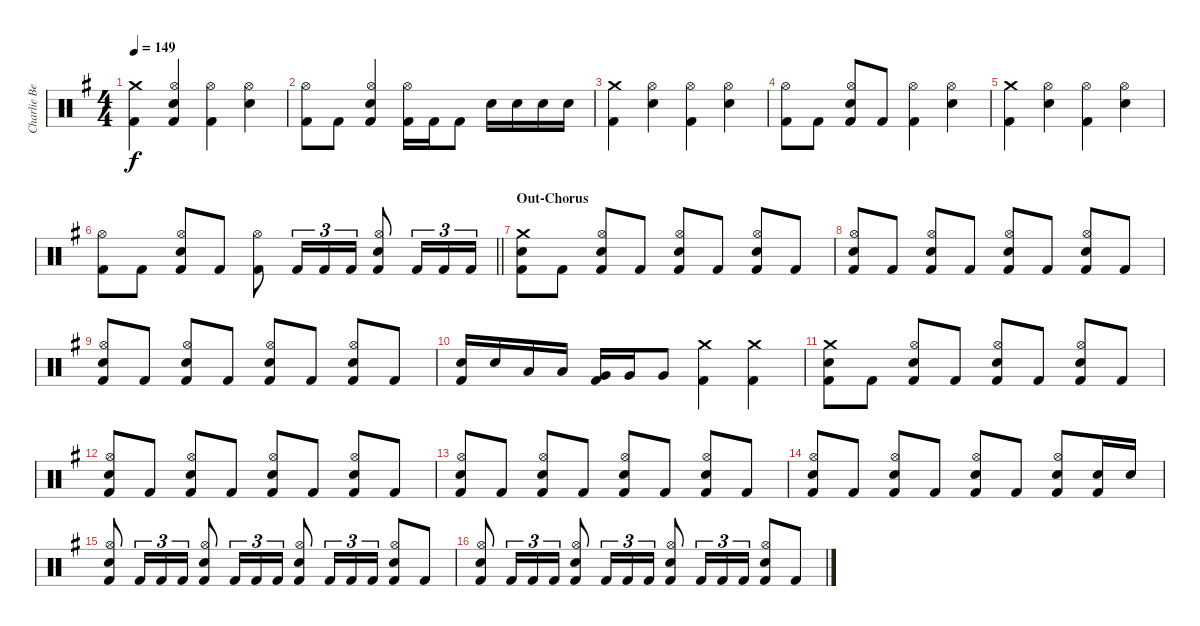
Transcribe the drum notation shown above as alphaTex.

\track ("Charlie Benate" "Charlie Be") {instrument percussion}
\staff {score}
\articulation defaults
\ts (4 4)
\tempo 149
\clef neutral
\ks g
("Crash medium (hit)" "Kick (hit) 2").4{dy f} ("Hi-Hat (open)" "Snare (hit) 2" "Kick (hit) 2").4 ("Hi-Hat (open)" "Kick (hit) 2").4 ("Hi-Hat (open)" "Snare (hit) 2").4 |
("Hi-Hat (open)" "Kick (hit) 2").8 "Kick (hit) 2".8 ("Hi-Hat (open)" "Snare (hit) 2" "Kick (hit) 2").4 ("Hi-Hat (open)" "Kick (hit) 2").16 "Kick (hit) 2".16 "Kick (hit) 2".8 "Snare (hit) 2".16 "Snare (hit) 2".16 "Snare (hit) 2".16 "Snare (hit) 2".16 |
("Crash medium (hit)" "Kick (hit) 2").4 ("Hi-Hat (open)" "Snare (hit) 2").4 ("Hi-Hat (open)" "Kick (hit) 2").4 ("Hi-Hat (open)" "Snare (hit) 2").4 |
("Hi-Hat (open)" "Kick (hit) 2").8 "Kick (hit) 2".8 ("Hi-Hat (open)" "Snare (hit) 2" "Kick (hit) 2").8 "Kick (hit) 2".8 ("Hi-Hat (open)" "Kick (hit) 2").4 ("Hi-Hat (open)" "Snare (hit) 2").4 |
("Crash medium (hit)" "Kick (hit) 2").4 ("Hi-Hat (open)" "Snare (hit) 2").4 ("Hi-Hat (open)" "Kick (hit) 2").4 ("Hi-Hat (open)" "Snare (hit) 2").4 |
\barLineRight lightlight
("Hi-Hat (open)" "Kick (hit) 2").8 "Kick (hit) 2".8 ("Hi-Hat (open)" "Snare (hit) 2" "Kick (hit) 2").8 "Kick (hit) 2".8 ("Hi-Hat (open)" "Kick (hit) 2").8 "Kick (hit) 2".16{tu (3 2)} "Kick (hit) 2".16{tu (3 2)} "Kick (hit) 2".16{tu (3 2)} ("Hi-Hat (open)" "Snare (hit) 2" "Kick (hit) 2").8 "Kick (hit) 2".16{tu (3 2)} "Kick (hit) 2".16{tu (3 2)} "Kick (hit) 2".16{tu (3 2)} |
\section ("" "Out-Chorus")
("Crash medium (hit)" "Snare (hit) 2" "Kick (hit) 2").8 "Kick (hit) 2".8 ("Hi-Hat (open)" "Snare (hit) 2" "Kick (hit) 2").8 "Kick (hit) 2".8 ("Hi-Hat (open)" "Snare (hit) 2" "Kick (hit) 2").8 "Kick (hit) 2".8 ("Hi-Hat (open)" "Snare (hit) 2" "Kick (hit) 2").8 "Kick (hit) 2".8 |
("Hi-Hat (open)" "Snare (hit) 2" "Kick (hit) 2").8 "Kick (hit) 2".8 ("Hi-Hat (open)" "Snare (hit) 2" "Kick (hit) 2").8 "Kick (hit) 2".8 ("Hi-Hat (open)" "Snare (hit) 2" "Kick (hit) 2").8 "Kick (hit) 2".8 ("Hi-Hat (open)" "Snare (hit) 2" "Kick (hit) 2").8 "Kick (hit) 2".8 |
("Hi-Hat (open)" "Snare (hit) 2" "Kick (hit) 2").8 "Kick (hit) 2".8 ("Hi-Hat (open)" "Snare (hit) 2" "Kick (hit) 2").8 "Kick (hit) 2".8 ("Hi-Hat (open)" "Snare (hit) 2" "Kick (hit) 2").8 "Kick (hit) 2".8 ("Hi-Hat (open)" "Snare (hit) 2" "Kick (hit) 2").8 "Kick (hit) 2".8 |
("Snare (hit) 2" "Kick (hit) 2").16 "Snare (hit) 2".16 "Low Tom (hit)".16 "Low Tom (hit)".16 ("Very Low Tom (hit)" "Kick (hit) 2").16 "Very Low Tom (hit)".16 "Very Low Tom (hit)".8 ("Crash medium (hit)" "Kick (hit) 2").4 ("Crash medium (hit)" "Kick (hit) 2").4 |
("Crash medium (hit)" "Snare (hit) 2" "Kick (hit) 2").8 "Kick (hit) 2".8 ("Hi-Hat (open)" "Snare (hit) 2" "Kick (hit) 2").8 "Kick (hit) 2".8 ("Hi-Hat (open)" "Snare (hit) 2" "Kick (hit) 2").8 "Kick (hit) 2".8 ("Hi-Hat (open)" "Snare (hit) 2" "Kick (hit) 2").8 "Kick (hit) 2".8 |
("Hi-Hat (open)" "Snare (hit) 2" "Kick (hit) 2").8 "Kick (hit) 2".8 ("Hi-Hat (open)" "Snare (hit) 2" "Kick (hit) 2").8 "Kick (hit) 2".8 ("Hi-Hat (open)" "Snare (hit) 2" "Kick (hit) 2").8 "Kick (hit) 2".8 ("Hi-Hat (open)" "Snare (hit) 2" "Kick (hit) 2").8 "Kick (hit) 2".8 |
("Hi-Hat (open)" "Snare (hit) 2" "Kick (hit) 2").8 "Kick (hit) 2".8 ("Hi-Hat (open)" "Snare (hit) 2" "Kick (hit) 2").8 "Kick (hit) 2".8 ("Hi-Hat (open)" "Snare (hit) 2" "Kick (hit) 2").8 "Kick (hit) 2".8 ("Hi-Hat (open)" "Snare (hit) 2" "Kick (hit) 2").8 "Kick (hit) 2".8 |
("Hi-Hat (open)" "Snare (hit) 2" "Kick (hit) 2").8 "Kick (hit) 2".8 ("Hi-Hat (open)" "Snare (hit) 2" "Kick (hit) 2").8 "Kick (hit) 2".8 ("Hi-Hat (open)" "Snare (hit) 2" "Kick (hit) 2").8 "Kick (hit) 2".8 ("Hi-Hat (open)" "Snare (hit) 2" "Kick (hit) 2").8 ("Snare (hit) 2" "Kick (hit) 2").16 "Snare (hit) 2".16 |
("Hi-Hat (open)" "Snare (hit) 2" "Kick (hit) 2").8 "Kick (hit) 2".16{tu (3 2)} "Kick (hit) 2".16{tu (3 2)} "Kick (hit) 2".16{tu (3 2)} ("Hi-Hat (open)" "Snare (hit) 2" "Kick (hit) 2").8 "Kick (hit) 2".16{tu (3 2)} "Kick (hit) 2".16{tu (3 2)} "Kick (hit) 2".16{tu (3 2)} ("Hi-Hat (open)" "Snare (hit) 2" "Kick (hit) 2").8 "Kick (hit) 2".16{tu (3 2)} "Kick (hit) 2".16{tu (3 2)} "Kick (hit) 2".16{tu (3 2)} ("Hi-Hat (open)" "Snare (hit) 2" "Kick (hit) 2").8 "Kick (hit) 2".8 |
("Hi-Hat (open)" "Snare (hit) 2" "Kick (hit) 2").8 "Kick (hit) 2".16{tu (3 2)} "Kick (hit) 2".16{tu (3 2)} "Kick (hit) 2".16{tu (3 2)} ("Hi-Hat (open)" "Snare (hit) 2" "Kick (hit) 2").8 "Kick (hit) 2".16{tu (3 2)} "Kick (hit) 2".16{tu (3 2)} "Kick (hit) 2".16{tu (3 2)} ("Hi-Hat (open)" "Snare (hit) 2" "Kick (hit) 2").8 "Kick (hit) 2".16{tu (3 2)} "Kick (hit) 2".16{tu (3 2)} "Kick (hit) 2".16{tu (3 2)} ("Hi-Hat (open)" "Snare (hit) 2" "Kick (hit) 2").8 "Kick (hit) 2".8
